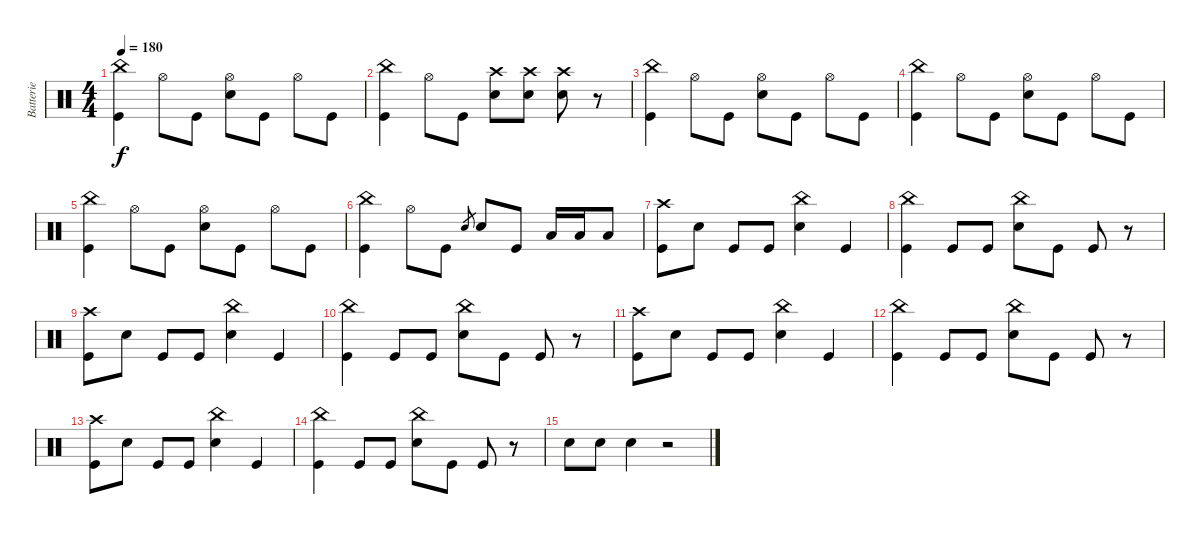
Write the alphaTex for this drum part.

\track ("Batterie" "Batterie") {instrument percussion}
\staff {score}
\articulation defaults
\ts (4 4)
\tempo 180
\clef neutral
\ks c
("China (hit)" "Kick (hit)").4{dy f} "Hi-Hat (open)".8 "Kick (hit)".8 ("Hi-Hat (open)" "Electric Snare (hit)").8 "Kick (hit)".8 "Hi-Hat (open)".8 "Kick (hit)".8 |
("China (hit)" "Kick (hit)").4 "Hi-Hat (open)".8 "Kick (hit)".8 ("Crash high (hit)" "Electric Snare (hit)").8 ("Crash high (hit)" "Electric Snare (hit)").8 ("Crash high (hit)" "Electric Snare (hit)").8 r.8 |
("China (hit)" "Kick (hit)").4 "Hi-Hat (open)".8 "Kick (hit)".8 ("Hi-Hat (open)" "Electric Snare (hit)").8 "Kick (hit)".8 "Hi-Hat (open)".8 "Kick (hit)".8 |
("China (hit)" "Kick (hit)").4 "Hi-Hat (open)".8 "Kick (hit)".8 ("Hi-Hat (open)" "Electric Snare (hit)").8 "Kick (hit)".8 "Hi-Hat (open)".8 "Kick (hit)".8 |
("China (hit)" "Kick (hit)").4 "Hi-Hat (open)".8 "Kick (hit)".8 ("Hi-Hat (open)" "Electric Snare (hit)").8 "Kick (hit)".8 "Hi-Hat (open)".8 "Kick (hit)".8 |
("China (hit)" "Kick (hit)").4 "Hi-Hat (open)".8 "Kick (hit)".8 "Electric Snare (hit)".8{gr} "Electric Snare (hit)".8 "Kick (hit)".8 "Low Tom (hit)".16 "Low Tom (hit)".16 "Low Floor Tom (hit)".8 |
("Crash high (hit)" "Kick (hit)").8 "Electric Snare (hit)".8 "Kick (hit)".8 "Kick (hit)".8 ("China (hit)" "Electric Snare (hit)").4 "Kick (hit)".4 |
("China (hit)" "Kick (hit)").4 "Kick (hit)".8 "Kick (hit)".8 ("China (hit)" "Electric Snare (hit)").8 "Kick (hit)".8 "Kick (hit)".8 r.8 |
("Crash high (hit)" "Kick (hit)").8 "Electric Snare (hit)".8 "Kick (hit)".8 "Kick (hit)".8 ("China (hit)" "Electric Snare (hit)").4 "Kick (hit)".4 |
("China (hit)" "Kick (hit)").4 "Kick (hit)".8 "Kick (hit)".8 ("China (hit)" "Electric Snare (hit)").8 "Kick (hit)".8 "Kick (hit)".8 r.8 |
("Crash high (hit)" "Kick (hit)").8 "Electric Snare (hit)".8 "Kick (hit)".8 "Kick (hit)".8 ("China (hit)" "Electric Snare (hit)").4 "Kick (hit)".4 |
("China (hit)" "Kick (hit)").4 "Kick (hit)".8 "Kick (hit)".8 ("China (hit)" "Electric Snare (hit)").8 "Kick (hit)".8 "Kick (hit)".8 r.8 |
("Crash high (hit)" "Kick (hit)").8 "Electric Snare (hit)".8 "Kick (hit)".8 "Kick (hit)".8 ("China (hit)" "Electric Snare (hit)").4 "Kick (hit)".4 |
("China (hit)" "Kick (hit)").4 "Kick (hit)".8 "Kick (hit)".8 ("China (hit)" "Electric Snare (hit)").8 "Kick (hit)".8 "Kick (hit)".8 r.8 |
"Electric Snare (hit)".8 "Electric Snare (hit)".8 "Electric Snare (hit)".4 r.2
